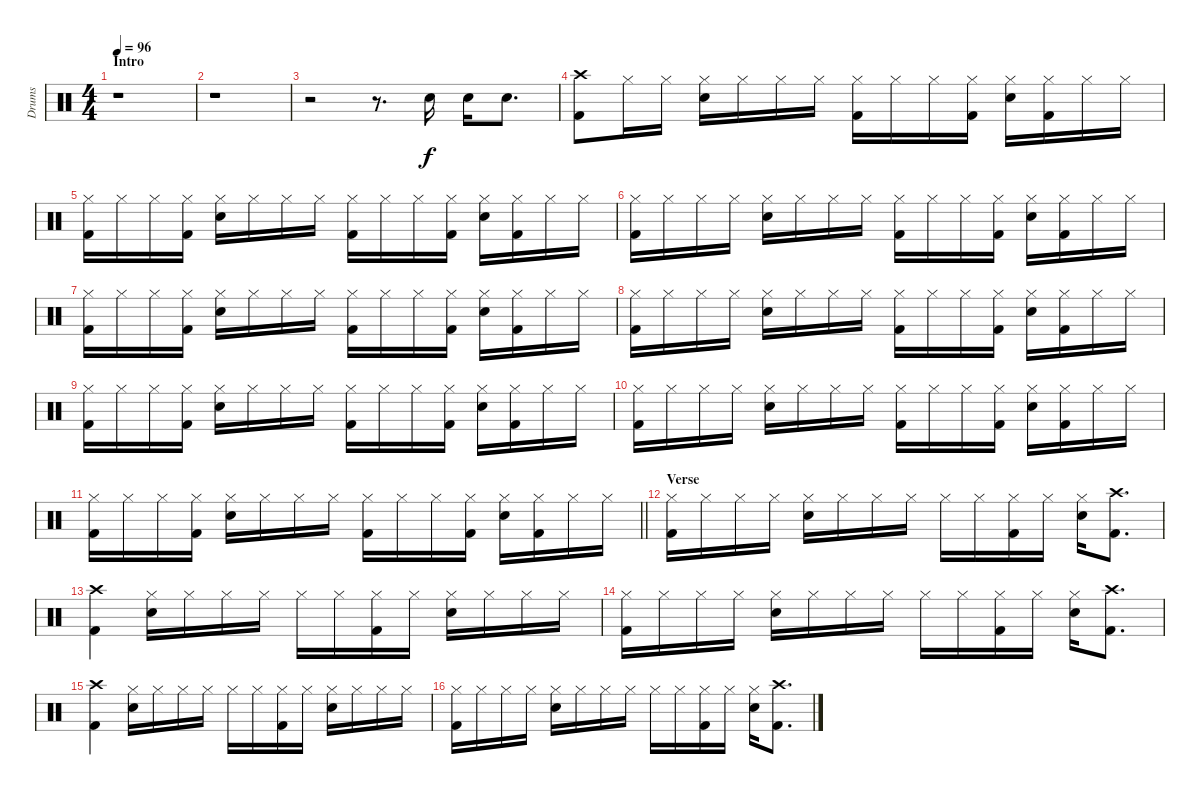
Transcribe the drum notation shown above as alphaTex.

\track ("Drums" "Drums") {instrument percussion}
\staff {score}
\articulation defaults
\ts (4 4)
\section ("" "Intro")
\tempo 96
\clef neutral
\ks c
r.1{dy f} |
r.1 |
r.2 r.8{d} "Electric Snare (hit)".16 "Electric Snare (hit)".16 "Electric Snare (hit)".8{d} |
("Crash high (hit)" "Kick (hit) 2").8 "Hi-Hat (closed)".16 "Hi-Hat (closed)".16 ("Hi-Hat (closed)" "Electric Snare (hit)").16 "Hi-Hat (closed)".16 "Hi-Hat (closed)".16 "Hi-Hat (closed)".16 ("Hi-Hat (closed)" "Kick (hit) 2").16 "Hi-Hat (closed)".16 "Hi-Hat (closed)".16 ("Hi-Hat (closed)" "Kick (hit) 2").16 ("Hi-Hat (closed)" "Electric Snare (hit)").16 ("Hi-Hat (closed)" "Kick (hit) 2").16 "Hi-Hat (closed)".16 "Hi-Hat (closed)".16 |
("Hi-Hat (closed)" "Kick (hit) 2").16 "Hi-Hat (closed)".16 "Hi-Hat (closed)".16 ("Hi-Hat (closed)" "Kick (hit) 2").16 ("Hi-Hat (closed)" "Electric Snare (hit)").16 "Hi-Hat (closed)".16 "Hi-Hat (closed)".16 "Hi-Hat (closed)".16 ("Hi-Hat (closed)" "Kick (hit) 2").16 "Hi-Hat (closed)".16 "Hi-Hat (closed)".16 ("Hi-Hat (closed)" "Kick (hit) 2").16 ("Hi-Hat (closed)" "Electric Snare (hit)").16 ("Hi-Hat (closed)" "Kick (hit) 2").16 "Hi-Hat (closed)".16 "Hi-Hat (closed)".16 |
("Hi-Hat (closed)" "Kick (hit) 2").16 "Hi-Hat (closed)".16 "Hi-Hat (closed)".16 "Hi-Hat (closed)".16 ("Hi-Hat (closed)" "Electric Snare (hit)").16 "Hi-Hat (closed)".16 "Hi-Hat (closed)".16 "Hi-Hat (closed)".16 ("Hi-Hat (closed)" "Kick (hit) 2").16 "Hi-Hat (closed)".16 "Hi-Hat (closed)".16 ("Hi-Hat (closed)" "Kick (hit) 2").16 ("Hi-Hat (closed)" "Electric Snare (hit)").16 ("Hi-Hat (closed)" "Kick (hit) 2").16 "Hi-Hat (closed)".16 "Hi-Hat (closed)".16 |
("Hi-Hat (closed)" "Kick (hit) 2").16 "Hi-Hat (closed)".16 "Hi-Hat (closed)".16 ("Hi-Hat (closed)" "Kick (hit) 2").16 ("Hi-Hat (closed)" "Electric Snare (hit)").16 "Hi-Hat (closed)".16 "Hi-Hat (closed)".16 "Hi-Hat (closed)".16 ("Hi-Hat (closed)" "Kick (hit) 2").16 "Hi-Hat (closed)".16 "Hi-Hat (closed)".16 ("Hi-Hat (closed)" "Kick (hit) 2").16 ("Hi-Hat (closed)" "Electric Snare (hit)").16 ("Hi-Hat (closed)" "Kick (hit) 2").16 "Hi-Hat (closed)".16 "Hi-Hat (closed)".16 |
("Hi-Hat (closed)" "Kick (hit) 2").16 "Hi-Hat (closed)".16 "Hi-Hat (closed)".16 "Hi-Hat (closed)".16 ("Hi-Hat (closed)" "Electric Snare (hit)").16 "Hi-Hat (closed)".16 "Hi-Hat (closed)".16 "Hi-Hat (closed)".16 ("Hi-Hat (closed)" "Kick (hit) 2").16 "Hi-Hat (closed)".16 "Hi-Hat (closed)".16 ("Hi-Hat (closed)" "Kick (hit) 2").16 ("Hi-Hat (closed)" "Electric Snare (hit)").16 ("Hi-Hat (closed)" "Kick (hit) 2").16 "Hi-Hat (closed)".16 "Hi-Hat (closed)".16 |
("Hi-Hat (closed)" "Kick (hit) 2").16 "Hi-Hat (closed)".16 "Hi-Hat (closed)".16 ("Hi-Hat (closed)" "Kick (hit) 2").16 ("Hi-Hat (closed)" "Electric Snare (hit)").16 "Hi-Hat (closed)".16 "Hi-Hat (closed)".16 "Hi-Hat (closed)".16 ("Hi-Hat (closed)" "Kick (hit) 2").16 "Hi-Hat (closed)".16 "Hi-Hat (closed)".16 ("Hi-Hat (closed)" "Kick (hit) 2").16 ("Hi-Hat (closed)" "Electric Snare (hit)").16 ("Hi-Hat (closed)" "Kick (hit) 2").16 "Hi-Hat (closed)".16 "Hi-Hat (closed)".16 |
("Hi-Hat (closed)" "Kick (hit) 2").16 "Hi-Hat (closed)".16 "Hi-Hat (closed)".16 "Hi-Hat (closed)".16 ("Hi-Hat (closed)" "Electric Snare (hit)").16 "Hi-Hat (closed)".16 "Hi-Hat (closed)".16 "Hi-Hat (closed)".16 ("Hi-Hat (closed)" "Kick (hit) 2").16 "Hi-Hat (closed)".16 "Hi-Hat (closed)".16 ("Hi-Hat (closed)" "Kick (hit) 2").16 ("Hi-Hat (closed)" "Electric Snare (hit)").16 ("Hi-Hat (closed)" "Kick (hit) 2").16 "Hi-Hat (closed)".16 "Hi-Hat (closed)".16 |
\barLineRight lightlight
("Hi-Hat (closed)" "Kick (hit) 2").16 "Hi-Hat (closed)".16 "Hi-Hat (closed)".16 ("Hi-Hat (closed)" "Kick (hit) 2").16 ("Hi-Hat (closed)" "Electric Snare (hit)").16 "Hi-Hat (closed)".16 "Hi-Hat (closed)".16 "Hi-Hat (closed)".16 ("Hi-Hat (closed)" "Kick (hit) 2").16 "Hi-Hat (closed)".16 "Hi-Hat (closed)".16 ("Hi-Hat (closed)" "Kick (hit) 2").16 ("Hi-Hat (closed)" "Electric Snare (hit)").16 ("Hi-Hat (closed)" "Kick (hit) 2").16 "Hi-Hat (closed)".16 "Hi-Hat (closed)".16 |
\section ("" "Verse")
("Hi-Hat (closed)" "Kick (hit) 2").16 "Hi-Hat (closed)".16 "Hi-Hat (closed)".16 "Hi-Hat (closed)".16 ("Hi-Hat (closed)" "Electric Snare (hit)").16 "Hi-Hat (closed)".16 "Hi-Hat (closed)".16 "Hi-Hat (closed)".16 "Hi-Hat (closed)".16 "Hi-Hat (closed)".16 ("Hi-Hat (closed)" "Kick (hit) 2").16 "Hi-Hat (closed)".16 ("Hi-Hat (closed)" "Electric Snare (hit)").16 ("Crash high (hit)" "Kick (hit) 2").8{d} |
("Crash high (hit)" "Kick (hit) 2").4 ("Hi-Hat (closed)" "Electric Snare (hit)").16 "Hi-Hat (closed)".16 "Hi-Hat (closed)".16 "Hi-Hat (closed)".16 "Hi-Hat (closed)".16 "Hi-Hat (closed)".16 ("Hi-Hat (closed)" "Kick (hit) 2").16 "Hi-Hat (closed)".16 ("Hi-Hat (closed)" "Electric Snare (hit)").16 "Hi-Hat (closed)".16 "Hi-Hat (closed)".16 "Hi-Hat (closed)".16 |
("Hi-Hat (closed)" "Kick (hit) 2").16 "Hi-Hat (closed)".16 "Hi-Hat (closed)".16 "Hi-Hat (closed)".16 ("Hi-Hat (closed)" "Electric Snare (hit)").16 "Hi-Hat (closed)".16 "Hi-Hat (closed)".16 "Hi-Hat (closed)".16 "Hi-Hat (closed)".16 "Hi-Hat (closed)".16 ("Hi-Hat (closed)" "Kick (hit) 2").16 "Hi-Hat (closed)".16 ("Hi-Hat (closed)" "Electric Snare (hit)").16 ("Crash high (hit)" "Kick (hit) 2").8{d} |
("Crash high (hit)" "Kick (hit) 2").4 ("Hi-Hat (closed)" "Electric Snare (hit)").16 "Hi-Hat (closed)".16 "Hi-Hat (closed)".16 "Hi-Hat (closed)".16 "Hi-Hat (closed)".16 "Hi-Hat (closed)".16 ("Hi-Hat (closed)" "Kick (hit) 2").16 "Hi-Hat (closed)".16 ("Hi-Hat (closed)" "Electric Snare (hit)").16 "Hi-Hat (closed)".16 "Hi-Hat (closed)".16 "Hi-Hat (closed)".16 |
("Hi-Hat (closed)" "Kick (hit) 2").16 "Hi-Hat (closed)".16 "Hi-Hat (closed)".16 "Hi-Hat (closed)".16 ("Hi-Hat (closed)" "Electric Snare (hit)").16 "Hi-Hat (closed)".16 "Hi-Hat (closed)".16 "Hi-Hat (closed)".16 "Hi-Hat (closed)".16 "Hi-Hat (closed)".16 ("Hi-Hat (closed)" "Kick (hit) 2").16 "Hi-Hat (closed)".16 ("Hi-Hat (closed)" "Electric Snare (hit)").16 ("Crash high (hit)" "Kick (hit) 2").8{d}
